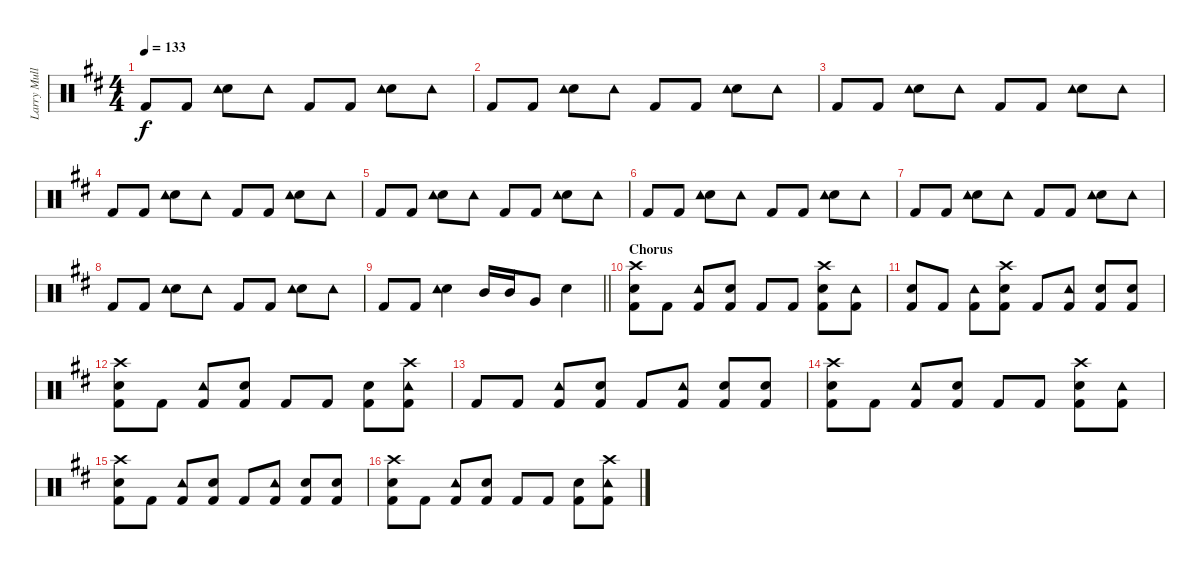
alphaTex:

\track ("Larry Mullen Jr." "Larry Mull") {instrument percussion}
\staff {score}
\articulation defaults
\ts (4 4)
\tempo 133
\clef neutral
\ks d "Kick (hit) 2".8{dy f} "Kick (hit) 2".8
("Snare (hit) 2" "Tambourine (hit)").8 "Tambourine (hit)".8 "Kick (hit) 2".8 "Kick (hit) 2".8 ("Snare (hit) 2" "Tambourine (hit)").8 "Tambourine (hit)".8 |
"Kick (hit) 2".8 "Kick (hit) 2".8 ("Snare (hit) 2" "Tambourine (hit)").8 "Tambourine (hit)".8 "Kick (hit) 2".8 "Kick (hit) 2".8 ("Snare (hit) 2" "Tambourine (hit)").8 "Tambourine (hit)".8 |
"Kick (hit) 2".8 "Kick (hit) 2".8 ("Snare (hit) 2" "Tambourine (hit)").8 "Tambourine (hit)".8 "Kick (hit) 2".8 "Kick (hit) 2".8 ("Snare (hit) 2" "Tambourine (hit)").8 "Tambourine (hit)".8 |
"Kick (hit) 2".8 "Kick (hit) 2".8 ("Snare (hit) 2" "Tambourine (hit)").8 "Tambourine (hit)".8 "Kick (hit) 2".8 "Kick (hit) 2".8 ("Snare (hit) 2" "Tambourine (hit)").8 "Tambourine (hit)".8 |
"Kick (hit) 2".8 "Kick (hit) 2".8 ("Snare (hit) 2" "Tambourine (hit)").8 "Tambourine (hit)".8 "Kick (hit) 2".8 "Kick (hit) 2".8 ("Snare (hit) 2" "Tambourine (hit)").8 "Tambourine (hit)".8 |
"Kick (hit) 2".8 "Kick (hit) 2".8 ("Snare (hit) 2" "Tambourine (hit)").8 "Tambourine (hit)".8 "Kick (hit) 2".8 "Kick (hit) 2".8 ("Snare (hit) 2" "Tambourine (hit)").8 "Tambourine (hit)".8 |
"Kick (hit) 2".8 "Kick (hit) 2".8 ("Snare (hit) 2" "Tambourine (hit)").8 "Tambourine (hit)".8 "Kick (hit) 2".8 "Kick (hit) 2".8 ("Snare (hit) 2" "Tambourine (hit)").8 "Tambourine (hit)".8 |
"Kick (hit) 2".8 "Kick (hit) 2".8 ("Snare (hit) 2" "Tambourine (hit)").8 "Tambourine (hit)".8 "Kick (hit) 2".8 "Kick (hit) 2".8 ("Snare (hit) 2" "Tambourine (hit)").8 "Tambourine (hit)".8 |
\barLineRight lightlight "Kick (hit) 2".8 "Kick (hit) 2".8
("Snare (hit) 2" "Tambourine (hit)").4 "Mid Tom (hit)".16 "Mid Tom (hit)".16 "Very Low Tom (hit)".8 "Snare (hit) 2".4 |
\section ("" "Chorus")
("Kick (hit) 2" "Crash high (hit)" "Snare (hit) 2").8 "Kick (hit) 2".8 ("Kick (hit) 2" "Tambourine (hit)").8 ("Kick (hit) 2" "Snare (hit) 2").8 "Kick (hit) 2".8 "Kick (hit) 2".8 ("Kick (hit) 2" "Snare (hit) 2" "Crash high (hit)").8 ("Kick (hit) 2" "Tambourine (hit)").8 |
("Kick (hit) 2" "Snare (hit) 2").8 "Kick (hit) 2".8 ("Kick (hit) 2" "Tambourine (hit)").8 ("Kick (hit) 2" "Snare (hit) 2" "Crash high (hit)").8 "Kick (hit) 2".8 ("Kick (hit) 2" "Tambourine (hit)").8 ("Kick (hit) 2" "Snare (hit) 2").8 ("Kick (hit) 2" "Snare (hit) 2").8 |
("Kick (hit) 2" "Crash high (hit)" "Snare (hit) 2").8 "Kick (hit) 2".8 ("Kick (hit) 2" "Tambourine (hit)").8 ("Kick (hit) 2" "Snare (hit) 2").8 "Kick (hit) 2".8 "Kick (hit) 2".8 ("Kick (hit) 2" "Snare (hit) 2").8 ("Kick (hit) 2" "Tambourine (hit)" "Crash high (hit)").8 |
"Kick (hit) 2".8 "Kick (hit) 2".8 ("Kick (hit) 2" "Tambourine (hit)").8 ("Kick (hit) 2" "Snare (hit) 2").8 "Kick (hit) 2".8 ("Kick (hit) 2" "Tambourine (hit)").8 ("Kick (hit) 2" "Snare (hit) 2").8 ("Kick (hit) 2" "Snare (hit) 2").8 |
("Kick (hit) 2" "Crash high (hit)" "Snare (hit) 2").8 "Kick (hit) 2".8 ("Kick (hit) 2" "Tambourine (hit)").8 ("Kick (hit) 2" "Snare (hit) 2").8 "Kick (hit) 2".8 "Kick (hit) 2".8 ("Kick (hit) 2" "Snare (hit) 2" "Crash high (hit)").8 ("Kick (hit) 2" "Tambourine (hit)").8 |
("Kick (hit) 2" "Snare (hit) 2" "Crash high (hit)").8 "Kick (hit) 2".8 ("Kick (hit) 2" "Tambourine (hit)").8 ("Kick (hit) 2" "Snare (hit) 2").8 "Kick (hit) 2".8 ("Kick (hit) 2" "Tambourine (hit)").8 ("Kick (hit) 2" "Snare (hit) 2").8 ("Kick (hit) 2" "Snare (hit) 2").8 |
("Kick (hit) 2" "Crash high (hit)" "Snare (hit) 2").8 "Kick (hit) 2".8 ("Kick (hit) 2" "Tambourine (hit)").8 ("Kick (hit) 2" "Snare (hit) 2").8 "Kick (hit) 2".8 "Kick (hit) 2".8 ("Kick (hit) 2" "Snare (hit) 2").8 ("Kick (hit) 2" "Tambourine (hit)" "Crash high (hit)").8
